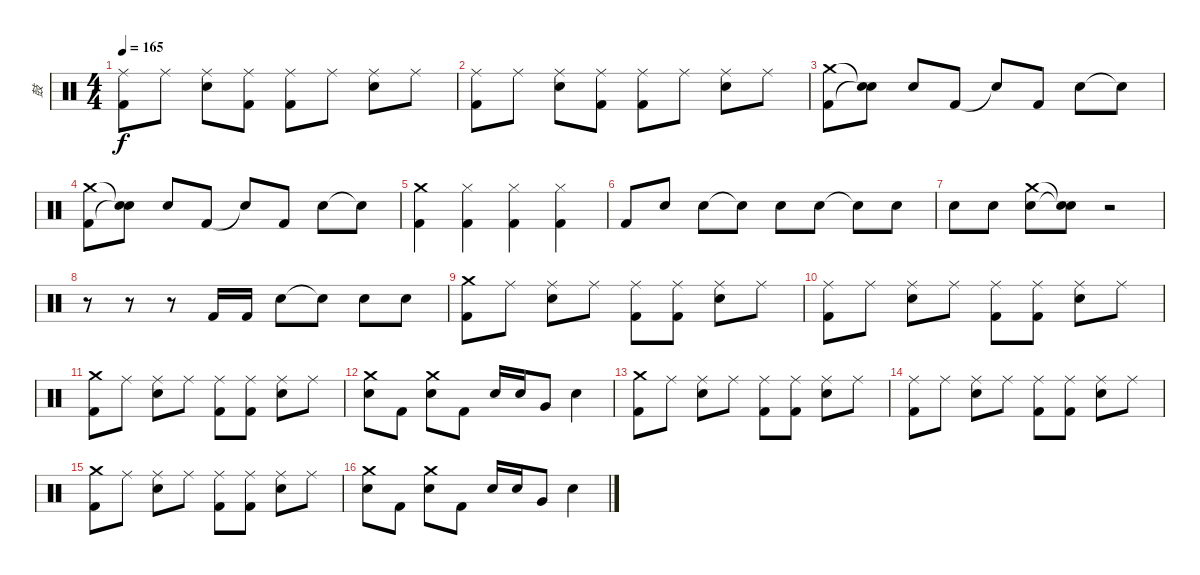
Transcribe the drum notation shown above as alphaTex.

\track ("鼓" "鼓") {instrument percussion}
\staff {score}
\articulation defaults
\ts (4 4)
\tempo 165
\clef neutral
\ks c
("Ride (middle)" "Kick (hit) 2").8{dy f} "Ride (middle)".8 ("Ride (middle)" "Snare (hit) 2").8 ("Ride (middle)" "Kick (hit) 2").8 ("Ride (middle)" "Kick (hit) 2").8 "Ride (middle)".8 ("Ride (middle)" "Snare (hit) 2").8 "Ride (middle)".8 |
("Ride (middle)" "Kick (hit) 2").8 "Ride (middle)".8 ("Ride (middle)" "Snare (hit) 2").8 ("Ride (middle)" "Kick (hit) 2").8 ("Ride (middle)" "Kick (hit) 2").8 "Ride (middle)".8 ("Ride (middle)" "Snare (hit) 2").8 "Ride (middle)".8 |
("Crash medium (hit)" "Kick (hit) 2").8 ("Snare (hit)"{t} "Snare (hit)"{t}).8 "Snare (hit) 2".8 "Kick (hit) 2".8 "Snare (hit)"{t}.8 "Kick (hit) 2".8 "Snare (hit) 2".8 "Snare (hit)"{t}.8 |
("Crash medium (hit)" "Kick (hit) 2").8 ("Snare (hit)"{t} "Snare (hit)"{t}).8 "Snare (hit) 2".8 "Kick (hit) 2".8 "Snare (hit)"{t}.8 "Kick (hit) 2".8 "Snare (hit) 2".8 "Snare (hit)"{t}.8 |
("Crash medium (hit)" "Kick (hit) 2").4 ("Hi-Hat (closed)" "Kick (hit) 2").4 ("Hi-Hat (closed)" "Kick (hit) 2").4 ("Hi-Hat (closed)" "Kick (hit) 2").4 |
"Kick (hit) 2".8 "Snare (hit) 2".8 "Snare (hit) 2".8 "Snare (hit)"{t}.8 "Snare (hit) 2".8 "Snare (hit) 2".8 "Snare (hit)"{t}.8 "Snare (hit) 2".8 |
"Snare (hit) 2".8 "Snare (hit) 2".8 ("Crash medium (hit)" "Snare (hit) 2").8 ("Snare (hit)"{t} "Snare (hit)"{t}).8 r.2 |
r.8 r.8 r.8 "Kick (hit) 2".16 "Kick (hit) 2".16 "Snare (hit) 2".8 "Snare (hit)"{t}.8 "Snare (hit) 2".8 "Snare (hit) 2".8 |
("Crash medium (hit)" "Kick (hit) 2").8 "Ride (middle)".8 ("Ride (middle)" "Snare (hit) 2").8 "Ride (middle)".8 ("Ride (middle)" "Kick (hit) 2").8 ("Ride (middle)" "Kick (hit) 2").8 ("Ride (middle)" "Snare (hit) 2").8 "Ride (middle)".8 |
("Ride (middle)" "Kick (hit) 2").8 "Ride (middle)".8 ("Ride (middle)" "Snare (hit) 2").8 "Ride (middle)".8 ("Ride (middle)" "Kick (hit) 2").8 ("Ride (middle)" "Kick (hit) 2").8 ("Ride (middle)" "Snare (hit) 2").8 "Ride (middle)".8 |
("Crash medium (hit)" "Kick (hit) 2").8 "Ride (middle)".8 ("Ride (middle)" "Snare (hit) 2").8 "Ride (middle)".8 ("Ride (middle)" "Kick (hit) 2").8 ("Ride (middle)" "Kick (hit) 2").8 ("Ride (middle)" "Snare (hit) 2").8 "Ride (middle)".8 |
("Crash medium (hit)" "Snare (hit) 2").8 "Kick (hit) 2".8 ("Crash medium (hit)" "Snare (hit) 2").8 "Kick (hit) 2".8 "Snare (hit) 2".16 "Snare (hit) 2".16 "Very Low Tom (hit)".8 "Snare (hit) 2".4 |
("Crash medium (hit)" "Kick (hit) 2").8 "Ride (middle)".8 ("Ride (middle)" "Snare (hit) 2").8 "Ride (middle)".8 ("Ride (middle)" "Kick (hit) 2").8 ("Ride (middle)" "Kick (hit) 2").8 ("Ride (middle)" "Snare (hit) 2").8 "Ride (middle)".8 |
("Ride (middle)" "Kick (hit) 2").8 "Ride (middle)".8 ("Ride (middle)" "Snare (hit) 2").8 "Ride (middle)".8 ("Ride (middle)" "Kick (hit) 2").8 ("Ride (middle)" "Kick (hit) 2").8 ("Ride (middle)" "Snare (hit) 2").8 "Ride (middle)".8 |
("Crash medium (hit)" "Kick (hit) 2").8 "Ride (middle)".8 ("Ride (middle)" "Snare (hit) 2").8 "Ride (middle)".8 ("Ride (middle)" "Kick (hit) 2").8 ("Ride (middle)" "Kick (hit) 2").8 ("Ride (middle)" "Snare (hit) 2").8 "Ride (middle)".8 |
("Crash medium (hit)" "Snare (hit) 2").8 "Kick (hit) 2".8 ("Crash medium (hit)" "Snare (hit) 2").8 "Kick (hit) 2".8 "Snare (hit) 2".16 "Snare (hit) 2".16 "Very Low Tom (hit)".8 "Snare (hit) 2".4
